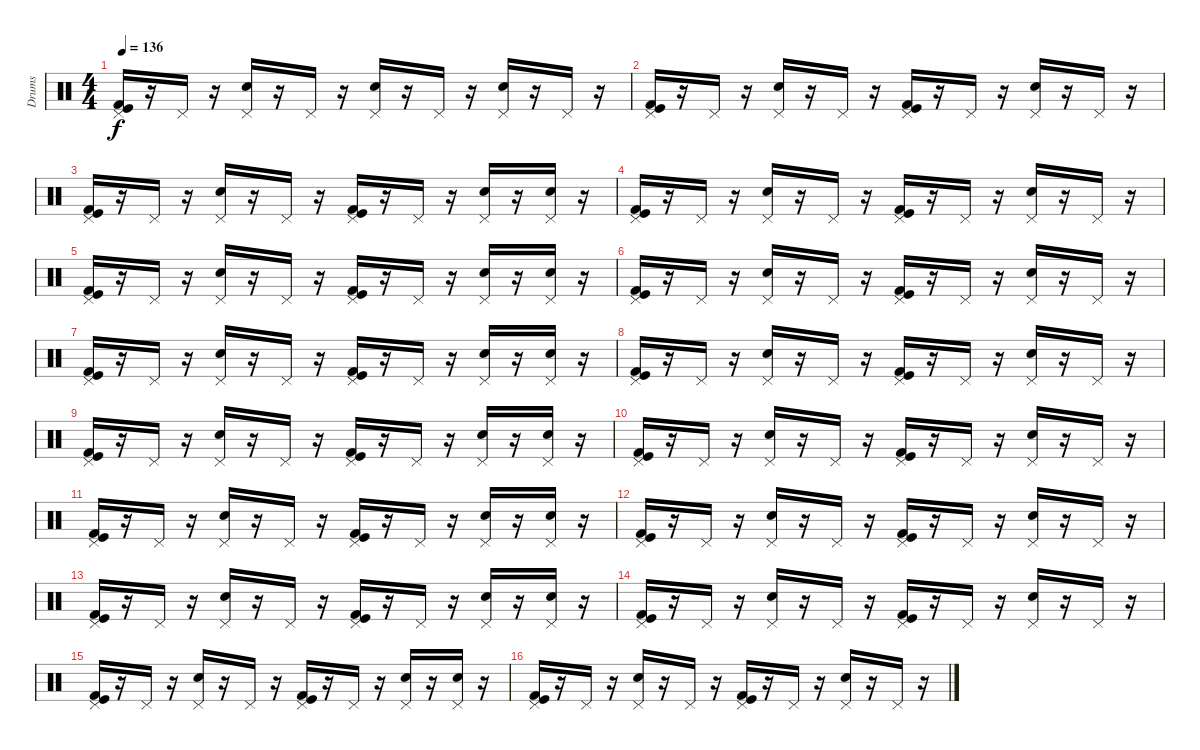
\track ("Drums" "Drums") {instrument percussion}
\staff {score}
\articulation defaults
\ts (4 4)
\tempo 136
\clef neutral
\ks c
("Kick (hit) 2" "Kick (hit)" "Pedal Hi-Hat (hit)").16{dy f} r.16 "Pedal Hi-Hat (hit)".16 r.16 ("Electric Snare (hit)" "Pedal Hi-Hat (hit)").16 r.16 "Pedal Hi-Hat (hit)".16 r.16 ("Snare (hit) 2" "Pedal Hi-Hat (hit)").16 r.16 "Pedal Hi-Hat (hit)".16 r.16 ("Snare (hit) 2" "Pedal Hi-Hat (hit)").16 r.16 "Pedal Hi-Hat (hit)".16 r.16 |
("Kick (hit) 2" "Kick (hit)" "Pedal Hi-Hat (hit)").16 r.16 "Pedal Hi-Hat (hit)".16 r.16 ("Snare (hit) 2" "Pedal Hi-Hat (hit)").16 r.16 "Pedal Hi-Hat (hit)".16 r.16 ("Kick (hit) 2" "Kick (hit)" "Pedal Hi-Hat (hit)").16 r.16 "Pedal Hi-Hat (hit)".16 r.16 ("Snare (hit) 2" "Pedal Hi-Hat (hit)").16 r.16 "Pedal Hi-Hat (hit)".16 r.16 |
("Kick (hit) 2" "Kick (hit)" "Pedal Hi-Hat (hit)").16 r.16 "Pedal Hi-Hat (hit)".16 r.16 ("Snare (hit) 2" "Pedal Hi-Hat (hit)").16 r.16 "Pedal Hi-Hat (hit)".16 r.16 ("Kick (hit) 2" "Kick (hit)" "Pedal Hi-Hat (hit)").16 r.16 "Pedal Hi-Hat (hit)".16 r.16 ("Snare (hit) 2" "Pedal Hi-Hat (hit)").16 r.16 ("Snare (hit) 2" "Pedal Hi-Hat (hit)").16 r.16 |
("Kick (hit) 2" "Kick (hit)" "Pedal Hi-Hat (hit)").16 r.16 "Pedal Hi-Hat (hit)".16 r.16 ("Snare (hit) 2" "Pedal Hi-Hat (hit)").16 r.16 "Pedal Hi-Hat (hit)".16 r.16 ("Kick (hit) 2" "Kick (hit)" "Pedal Hi-Hat (hit)").16 r.16 "Pedal Hi-Hat (hit)".16 r.16 ("Snare (hit) 2" "Pedal Hi-Hat (hit)").16 r.16 "Pedal Hi-Hat (hit)".16 r.16 |
("Kick (hit) 2" "Kick (hit)" "Pedal Hi-Hat (hit)").16 r.16 "Pedal Hi-Hat (hit)".16 r.16 ("Snare (hit) 2" "Pedal Hi-Hat (hit)").16 r.16 "Pedal Hi-Hat (hit)".16 r.16 ("Kick (hit) 2" "Kick (hit)" "Pedal Hi-Hat (hit)").16 r.16 "Pedal Hi-Hat (hit)".16 r.16 ("Snare (hit) 2" "Pedal Hi-Hat (hit)").16 r.16 ("Snare (hit) 2" "Pedal Hi-Hat (hit)").16 r.16 |
("Kick (hit) 2" "Kick (hit)" "Pedal Hi-Hat (hit)").16 r.16 "Pedal Hi-Hat (hit)".16 r.16 ("Snare (hit) 2" "Pedal Hi-Hat (hit)").16 r.16 "Pedal Hi-Hat (hit)".16 r.16 ("Kick (hit) 2" "Kick (hit)" "Pedal Hi-Hat (hit)").16 r.16 "Pedal Hi-Hat (hit)".16 r.16 ("Snare (hit) 2" "Pedal Hi-Hat (hit)").16 r.16 "Pedal Hi-Hat (hit)".16 r.16 |
("Kick (hit) 2" "Kick (hit)" "Pedal Hi-Hat (hit)").16 r.16 "Pedal Hi-Hat (hit)".16 r.16 ("Snare (hit) 2" "Pedal Hi-Hat (hit)").16 r.16 "Pedal Hi-Hat (hit)".16 r.16 ("Kick (hit) 2" "Kick (hit)" "Pedal Hi-Hat (hit)").16 r.16 "Pedal Hi-Hat (hit)".16 r.16 ("Snare (hit) 2" "Pedal Hi-Hat (hit)").16 r.16 ("Snare (hit) 2" "Pedal Hi-Hat (hit)").16 r.16 |
("Kick (hit) 2" "Kick (hit)" "Pedal Hi-Hat (hit)").16 r.16 "Pedal Hi-Hat (hit)".16 r.16 ("Snare (hit) 2" "Pedal Hi-Hat (hit)").16 r.16 "Pedal Hi-Hat (hit)".16 r.16 ("Kick (hit) 2" "Kick (hit)" "Pedal Hi-Hat (hit)").16 r.16 "Pedal Hi-Hat (hit)".16 r.16 ("Snare (hit) 2" "Pedal Hi-Hat (hit)").16 r.16 "Pedal Hi-Hat (hit)".16 r.16 |
("Kick (hit) 2" "Kick (hit)" "Pedal Hi-Hat (hit)").16 r.16 "Pedal Hi-Hat (hit)".16 r.16 ("Snare (hit) 2" "Pedal Hi-Hat (hit)").16 r.16 "Pedal Hi-Hat (hit)".16 r.16 ("Kick (hit) 2" "Kick (hit)" "Pedal Hi-Hat (hit)").16 r.16 "Pedal Hi-Hat (hit)".16 r.16 ("Snare (hit) 2" "Pedal Hi-Hat (hit)").16 r.16 ("Snare (hit) 2" "Pedal Hi-Hat (hit)").16 r.16 |
("Kick (hit) 2" "Kick (hit)" "Pedal Hi-Hat (hit)").16 r.16 "Pedal Hi-Hat (hit)".16 r.16 ("Snare (hit) 2" "Pedal Hi-Hat (hit)").16 r.16 "Pedal Hi-Hat (hit)".16 r.16 ("Kick (hit) 2" "Kick (hit)" "Pedal Hi-Hat (hit)").16 r.16 "Pedal Hi-Hat (hit)".16 r.16 ("Snare (hit) 2" "Pedal Hi-Hat (hit)").16 r.16 "Pedal Hi-Hat (hit)".16 r.16 |
("Kick (hit) 2" "Kick (hit)" "Pedal Hi-Hat (hit)").16 r.16 "Pedal Hi-Hat (hit)".16 r.16 ("Snare (hit) 2" "Pedal Hi-Hat (hit)").16 r.16 "Pedal Hi-Hat (hit)".16 r.16 ("Kick (hit) 2" "Kick (hit)" "Pedal Hi-Hat (hit)").16 r.16 "Pedal Hi-Hat (hit)".16 r.16 ("Snare (hit) 2" "Pedal Hi-Hat (hit)").16 r.16 ("Snare (hit) 2" "Pedal Hi-Hat (hit)").16 r.16 |
("Kick (hit) 2" "Kick (hit)" "Pedal Hi-Hat (hit)").16 r.16 "Pedal Hi-Hat (hit)".16 r.16 ("Snare (hit) 2" "Pedal Hi-Hat (hit)").16 r.16 "Pedal Hi-Hat (hit)".16 r.16 ("Kick (hit) 2" "Kick (hit)" "Pedal Hi-Hat (hit)").16 r.16 "Pedal Hi-Hat (hit)".16 r.16 ("Snare (hit) 2" "Pedal Hi-Hat (hit)").16 r.16 "Pedal Hi-Hat (hit)".16 r.16 |
("Kick (hit) 2" "Kick (hit)" "Pedal Hi-Hat (hit)").16 r.16 "Pedal Hi-Hat (hit)".16 r.16 ("Snare (hit) 2" "Pedal Hi-Hat (hit)").16 r.16 "Pedal Hi-Hat (hit)".16 r.16 ("Kick (hit) 2" "Kick (hit)" "Pedal Hi-Hat (hit)").16 r.16 "Pedal Hi-Hat (hit)".16 r.16 ("Snare (hit) 2" "Pedal Hi-Hat (hit)").16 r.16 ("Snare (hit) 2" "Pedal Hi-Hat (hit)").16 r.16 |
("Kick (hit) 2" "Kick (hit)" "Pedal Hi-Hat (hit)").16 r.16 "Pedal Hi-Hat (hit)".16 r.16 ("Snare (hit) 2" "Pedal Hi-Hat (hit)").16 r.16 "Pedal Hi-Hat (hit)".16 r.16 ("Kick (hit) 2" "Kick (hit)" "Pedal Hi-Hat (hit)").16 r.16 "Pedal Hi-Hat (hit)".16 r.16 ("Snare (hit) 2" "Pedal Hi-Hat (hit)").16 r.16 "Pedal Hi-Hat (hit)".16 r.16 |
("Kick (hit) 2" "Kick (hit)" "Pedal Hi-Hat (hit)").16 r.16 "Pedal Hi-Hat (hit)".16 r.16 ("Snare (hit) 2" "Pedal Hi-Hat (hit)").16 r.16 "Pedal Hi-Hat (hit)".16 r.16 ("Kick (hit) 2" "Kick (hit)" "Pedal Hi-Hat (hit)").16 r.16 "Pedal Hi-Hat (hit)".16 r.16 ("Snare (hit) 2" "Pedal Hi-Hat (hit)").16 r.16 ("Snare (hit) 2" "Pedal Hi-Hat (hit)").16 r.16 |
("Kick (hit) 2" "Kick (hit)" "Pedal Hi-Hat (hit)").16 r.16 "Pedal Hi-Hat (hit)".16 r.16 ("Snare (hit) 2" "Pedal Hi-Hat (hit)").16 r.16 "Pedal Hi-Hat (hit)".16 r.16 ("Kick (hit) 2" "Kick (hit)" "Pedal Hi-Hat (hit)").16 r.16 "Pedal Hi-Hat (hit)".16 r.16 ("Snare (hit) 2" "Pedal Hi-Hat (hit)").16 r.16 "Pedal Hi-Hat (hit)".16 r.16
